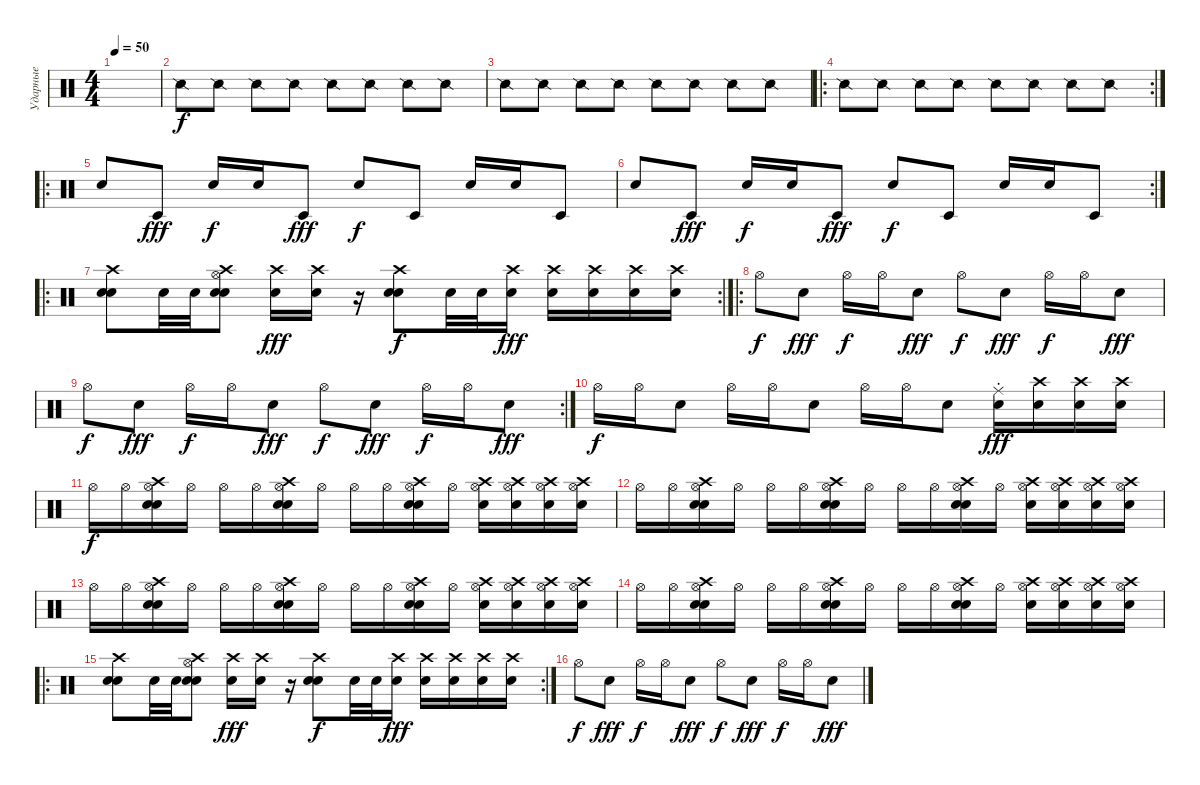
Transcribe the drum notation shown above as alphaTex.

\track ("Ударные" "Ударные") {instrument percussion}
\staff {score}
\articulation defaults
\ts (4 4)
\tempo 50
\clef neutral
\ks c
|
"Snare (side stick) 2".8 "Snare (side stick) 2".8 "Snare (side stick) 2".8 "Snare (side stick) 2".8 "Snare (side stick) 2".8 "Snare (side stick) 2".8 "Snare (side stick) 2".8 "Snare (side stick) 2".8 |
"Snare (side stick) 2".8 "Snare (side stick) 2".8 "Snare (side stick) 2".8 "Snare (side stick) 2".8 "Snare (side stick) 2".8 "Snare (side stick) 2".8 "Snare (side stick) 2".8 "Snare (side stick) 2".8 |
\ro
\rc 2 "Snare (side stick) 2".8 "Snare (side stick) 2".8 "Snare (side stick) 2".8 "Snare (side stick) 2".8 "Snare (side stick) 2".8 "Snare (side stick) 2".8 "Snare (side stick) 2".8 "Snare (side stick) 2".8
|
\ro "Electric Snare (hit)".8 "Timbale low (hit)".8{dy fff} "Electric Snare (hit)".16{dy f} "Electric Snare (hit)".16 "Timbale low (hit)".8{dy fff} "Electric Snare (hit)".8{dy f} "Timbale low (hit)".8 "Electric Snare (hit)".16 "Electric Snare (hit)".16 "Timbale low (hit)".8
|
\rc 2 "Electric Snare (hit)".8 "Timbale low (hit)".8{dy fff} "Electric Snare (hit)".16{dy f} "Electric Snare (hit)".16 "Timbale low (hit)".8{dy fff} "Electric Snare (hit)".8{dy f} "Timbale low (hit)".8 "Electric Snare (hit)".16 "Electric Snare (hit)".16 "Timbale low (hit)".8
|
\ro
\rc 2
("Electric Snare (hit)" "Crash high (hit)" "Snare (hit) 2").8 "Electric Snare (hit)".32 "Electric Snare (hit)".32 ("Crash high (hit)" "Electric Snare (hit)" "Snare (hit) 2" "Hi-Hat (open)").8 ("Crash high (hit)" "Snare (hit) 2").16{dy fff} ("Crash high (hit)" "Snare (hit) 2").16 r.16 ("Snare (hit) 2" "Crash high (hit)" "Electric Snare (hit)").8{dy f} "Electric Snare (hit)".32 "Electric Snare (hit)".32 ("Crash high (hit)" "Snare (hit) 2").16{dy fff} ("Crash high (hit)" "Snare (hit) 2").16 ("Crash high (hit)" "Snare (hit) 2").16 ("Crash high (hit)" "Snare (hit) 2").16 ("Crash high (hit)" "Snare (hit) 2").16 |
\ro "Hi-Hat (open)".8{dy f} "Electric Snare (hit)".8{dy fff} "Hi-Hat (open)".16{dy f} "Hi-Hat (open)".16 "Electric Snare (hit)".8{dy fff} "Hi-Hat (open)".8{dy f} "Electric Snare (hit)".8{dy fff} "Hi-Hat (open)".16{dy f} "Hi-Hat (open)".16 "Electric Snare (hit)".8{dy fff}
|
\rc 2 "Hi-Hat (open)".8{dy f} "Electric Snare (hit)".8{dy fff} "Hi-Hat (open)".16{dy f} "Hi-Hat (open)".16 "Electric Snare (hit)".8{dy fff} "Hi-Hat (open)".8{dy f} "Electric Snare (hit)".8{dy fff} "Hi-Hat (open)".16{dy f} "Hi-Hat (open)".16 "Electric Snare (hit)".8{dy fff}
|
"Hi-Hat (open)".16{dy f} "Hi-Hat (open)".16 "Electric Snare (hit)".8 "Hi-Hat (open)".16 "Hi-Hat (open)".16 "Electric Snare (hit)".8 "Hi-Hat (open)".16 "Hi-Hat (open)".16 "Electric Snare (hit)".8 ("Snare (hit) 2" "Ride (choke)").16{dy fff} ("Snare (hit) 2" "Crash high (hit)").16 ("Snare (hit) 2" "Crash high (hit)").16 ("Snare (hit) 2" "Crash high (hit)").16 |
"Hi-Hat (open)".16{dy f} "Hi-Hat (open)".16 ("Hi-Hat (open)" "Snare (hit) 2" "Crash high (hit)" "Electric Snare (hit)").16 "Hi-Hat (open)".16 "Hi-Hat (open)".16 "Hi-Hat (open)".16 ("Hi-Hat (open)" "Snare (hit) 2" "Crash high (hit)" "Electric Snare (hit)").16 "Hi-Hat (open)".16 "Hi-Hat (open)".16 "Hi-Hat (open)".16 ("Hi-Hat (open)" "Snare (hit) 2" "Crash high (hit)" "Electric Snare (hit)").16 "Hi-Hat (open)".16 ("Hi-Hat (open)" "Snare (hit) 2" "Crash high (hit)").16 ("Hi-Hat (open)" "Snare (hit) 2" "Crash high (hit)").16 ("Hi-Hat (open)" "Snare (hit) 2" "Crash high (hit)").16 ("Hi-Hat (open)" "Snare (hit) 2" "Crash high (hit)").16 |
"Hi-Hat (open)".16 "Hi-Hat (open)".16 ("Hi-Hat (open)" "Snare (hit) 2" "Crash high (hit)" "Electric Snare (hit)").16 "Hi-Hat (open)".16 "Hi-Hat (open)".16 "Hi-Hat (open)".16 ("Hi-Hat (open)" "Snare (hit) 2" "Crash high (hit)" "Electric Snare (hit)").16 "Hi-Hat (open)".16 "Hi-Hat (open)".16 "Hi-Hat (open)".16 ("Hi-Hat (open)" "Snare (hit) 2" "Crash high (hit)" "Electric Snare (hit)").16 "Hi-Hat (open)".16 ("Hi-Hat (open)" "Snare (hit) 2" "Crash high (hit)").16 ("Hi-Hat (open)" "Snare (hit) 2" "Crash high (hit)").16 ("Hi-Hat (open)" "Snare (hit) 2" "Crash high (hit)").16 ("Hi-Hat (open)" "Snare (hit) 2" "Crash high (hit)").16 |
"Hi-Hat (open)".16 "Hi-Hat (open)".16 ("Hi-Hat (open)" "Snare (hit) 2" "Crash high (hit)" "Electric Snare (hit)").16 "Hi-Hat (open)".16 "Hi-Hat (open)".16 "Hi-Hat (open)".16 ("Hi-Hat (open)" "Snare (hit) 2" "Crash high (hit)" "Electric Snare (hit)").16 "Hi-Hat (open)".16 "Hi-Hat (open)".16 "Hi-Hat (open)".16 ("Hi-Hat (open)" "Snare (hit) 2" "Crash high (hit)" "Electric Snare (hit)").16 "Hi-Hat (open)".16 ("Hi-Hat (open)" "Snare (hit) 2" "Crash high (hit)").16 ("Hi-Hat (open)" "Snare (hit) 2" "Crash high (hit)").16 ("Hi-Hat (open)" "Snare (hit) 2" "Crash high (hit)").16 ("Hi-Hat (open)" "Snare (hit) 2" "Crash high (hit)").16 |
"Hi-Hat (open)".16 "Hi-Hat (open)".16 ("Hi-Hat (open)" "Snare (hit) 2" "Crash high (hit)" "Electric Snare (hit)").16 "Hi-Hat (open)".16 "Hi-Hat (open)".16 "Hi-Hat (open)".16 ("Hi-Hat (open)" "Snare (hit) 2" "Crash high (hit)" "Electric Snare (hit)").16 "Hi-Hat (open)".16 "Hi-Hat (open)".16 "Hi-Hat (open)".16 ("Hi-Hat (open)" "Snare (hit) 2" "Crash high (hit)" "Electric Snare (hit)").16 "Hi-Hat (open)".16 ("Hi-Hat (open)" "Snare (hit) 2" "Crash high (hit)").16 ("Hi-Hat (open)" "Snare (hit) 2" "Crash high (hit)").16 ("Hi-Hat (open)" "Snare (hit) 2" "Crash high (hit)").16 ("Hi-Hat (open)" "Snare (hit) 2" "Crash high (hit)").16 |
\ro
\rc 2
("Electric Snare (hit)" "Crash high (hit)" "Snare (hit) 2").8 "Electric Snare (hit)".32 "Electric Snare (hit)".32 ("Crash high (hit)" "Electric Snare (hit)" "Snare (hit) 2" "Hi-Hat (open)").8 ("Crash high (hit)" "Snare (hit) 2").16{dy fff} ("Crash high (hit)" "Snare (hit) 2").16 r.16 ("Snare (hit) 2" "Crash high (hit)" "Electric Snare (hit)").8{dy f} "Electric Snare (hit)".32 "Electric Snare (hit)".32 ("Crash high (hit)" "Snare (hit) 2").16{dy fff} ("Crash high (hit)" "Snare (hit) 2").16 ("Crash high (hit)" "Snare (hit) 2").16 ("Crash high (hit)" "Snare (hit) 2").16 ("Crash high (hit)" "Snare (hit) 2").16 |
"Hi-Hat (open)".8{dy f} "Electric Snare (hit)".8{dy fff} "Hi-Hat (open)".16{dy f} "Hi-Hat (open)".16 "Electric Snare (hit)".8{dy fff} "Hi-Hat (open)".8{dy f} "Electric Snare (hit)".8{dy fff} "Hi-Hat (open)".16{dy f} "Hi-Hat (open)".16 "Electric Snare (hit)".8{dy fff}
